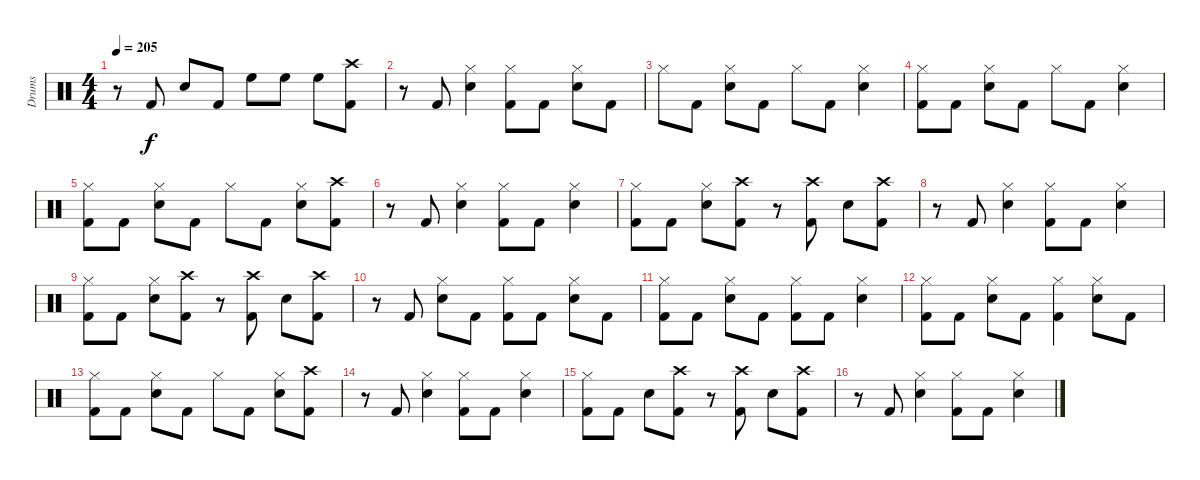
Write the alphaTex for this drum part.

\track ("Drums" "Drums") {instrument percussion}
\staff {score}
\articulation defaults
\ts (4 4)
\tempo 205
\clef neutral
\ks c
r.8{dy f} "Kick (hit) 2".8 "Snare (hit) 2".8 "Kick (hit) 2".8 "High Floor Tom (hit)".8 "High Floor Tom (hit)".8 "High Floor Tom (hit)".8 ("Crash high (hit)" "Kick (hit) 2").8 |
r.8 "Kick (hit) 2".8 ("Snare (hit) 2" "Hi-Hat (closed)").4 ("Kick (hit) 2" "Hi-Hat (closed)").8 "Kick (hit) 2".8 ("Snare (hit) 2" "Hi-Hat (closed)").8 "Kick (hit) 2".8 |
"Hi-Hat (closed)".8 "Kick (hit) 2".8 ("Hi-Hat (closed)" "Snare (hit) 2").8 "Kick (hit) 2".8 "Hi-Hat (closed)".8 "Kick (hit) 2".8 ("Hi-Hat (closed)" "Snare (hit) 2").4 |
("Kick (hit) 2" "Hi-Hat (closed)").8 "Kick (hit) 2".8 ("Hi-Hat (closed)" "Snare (hit) 2").8 "Kick (hit) 2".8 "Hi-Hat (closed)".8 "Kick (hit) 2".8 ("Hi-Hat (closed)" "Snare (hit) 2").4 |
("Hi-Hat (closed)" "Kick (hit) 2").8 "Kick (hit) 2".8 ("Hi-Hat (closed)" "Snare (hit) 2").8 "Kick (hit) 2".8 "Hi-Hat (closed)".8 "Kick (hit) 2".8 ("Snare (hit) 2" "Hi-Hat (closed)").8 ("Crash high (hit)" "Kick (hit) 2").8 |
r.8 "Kick (hit) 2".8 ("Snare (hit) 2" "Hi-Hat (closed)").4 ("Kick (hit) 2" "Hi-Hat (closed)").8 "Kick (hit) 2".8 ("Hi-Hat (closed)" "Snare (hit) 2").4 |
("Hi-Hat (closed)" "Kick (hit) 2").8 "Kick (hit) 2".8 ("Snare (hit) 2" "Hi-Hat (closed)").8 ("Kick (hit) 2" "Crash high (hit)").8 r.8 ("Crash high (hit)" "Kick (hit) 2").8 "Snare (hit) 2".8 ("Crash high (hit)" "Kick (hit) 2").8 |
r.8 "Kick (hit) 2".8 ("Snare (hit) 2" "Hi-Hat (closed)").4 ("Kick (hit) 2" "Hi-Hat (closed)").8 "Kick (hit) 2".8 ("Hi-Hat (closed)" "Snare (hit) 2").4 |
("Hi-Hat (closed)" "Kick (hit) 2").8 "Kick (hit) 2".8 ("Snare (hit) 2" "Hi-Hat (closed)").8 ("Kick (hit) 2" "Crash high (hit)").8 r.8 ("Crash high (hit)" "Kick (hit) 2").8 "Snare (hit) 2".8 ("Crash high (hit)" "Kick (hit) 2").8 |
r.8 "Kick (hit) 2".8 ("Snare (hit) 2" "Hi-Hat (closed)").8 "Kick (hit) 2".8 ("Hi-Hat (closed)" "Kick (hit) 2").8 "Kick (hit) 2".8 ("Hi-Hat (closed)" "Snare (hit) 2").8 "Kick (hit) 2".8 |
("Kick (hit) 2" "Hi-Hat (closed)").8 "Kick (hit) 2".8 ("Hi-Hat (closed)" "Snare (hit) 2").8 "Kick (hit) 2".8 ("Kick (hit) 2" "Hi-Hat (closed)").8 "Kick (hit) 2".8 ("Hi-Hat (closed)" "Snare (hit) 2").4 |
("Hi-Hat (closed)" "Kick (hit) 2").8 "Kick (hit) 2".8 ("Hi-Hat (closed)" "Snare (hit) 2").8 "Kick (hit) 2".8 ("Hi-Hat (closed)" "Kick (hit) 2").4 ("Hi-Hat (closed)" "Snare (hit) 2").8 "Kick (hit) 2".8 |
("Kick (hit) 2" "Hi-Hat (closed)").8 "Kick (hit) 2".8 ("Hi-Hat (closed)" "Snare (hit) 2").8 "Kick (hit) 2".8 "Hi-Hat (closed)".8 "Kick (hit) 2".8 ("Snare (hit) 2" "Hi-Hat (closed)").8 ("Kick (hit) 2" "Crash high (hit)").8 |
r.8 "Kick (hit) 2".8 ("Snare (hit) 2" "Hi-Hat (closed)").4 ("Hi-Hat (closed)" "Kick (hit) 2").8 "Kick (hit) 2".8 ("Hi-Hat (closed)" "Snare (hit) 2").4 |
("Kick (hit) 2" "Hi-Hat (closed)").8 "Kick (hit) 2".8 "Snare (hit) 2".8 ("Kick (hit) 2" "Crash high (hit)").8 r.8 ("Kick (hit) 2" "Crash high (hit)").8 "Snare (hit) 2".8 ("Kick (hit) 2" "Crash high (hit)").8 |
r.8 "Kick (hit) 2".8 ("Snare (hit) 2" "Hi-Hat (closed)").4 ("Hi-Hat (closed)" "Kick (hit) 2").8 "Kick (hit) 2".8 ("Hi-Hat (closed)" "Snare (hit) 2").4
